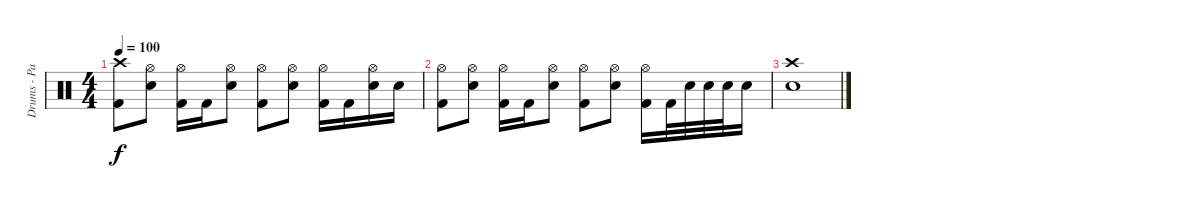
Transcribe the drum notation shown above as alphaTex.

\track ("Drums - Pat Thetic" "Drums - Pa") {instrument percussion}
\staff {score}
\articulation defaults
\ts (4 4)
\tempo 100
\clef neutral
\ks c
("Crash high (hit)" "Kick (hit) 2").8{dy f} ("Hi-Hat (open)" "Electric Snare (hit)").8 ("Hi-Hat (open)" "Kick (hit) 2").16 "Kick (hit) 2".16 ("Hi-Hat (open)" "Electric Snare (hit)").8 ("Hi-Hat (open)" "Kick (hit) 2").8 ("Hi-Hat (open)" "Electric Snare (hit)").8 ("Hi-Hat (open)" "Kick (hit) 2").16 "Kick (hit) 2".16 ("Hi-Hat (open)" "Electric Snare (hit)").16 "Electric Snare (hit)".16 |
("Hi-Hat (open)" "Kick (hit) 2").8 ("Hi-Hat (open)" "Electric Snare (hit)").8 ("Hi-Hat (open)" "Kick (hit) 2").16 "Kick (hit) 2".16 ("Hi-Hat (open)" "Electric Snare (hit)").8 ("Hi-Hat (open)" "Kick (hit) 2").8 ("Hi-Hat (open)" "Electric Snare (hit)").8 ("Hi-Hat (open)" "Kick (hit) 2").16 "Kick (hit) 2".32 "Electric Snare (hit)".32 "Electric Snare (hit)".32 "Electric Snare (hit)".32 "Electric Snare (hit)".16 |
("Crash high (hit)" "Electric Snare (hit)").1
